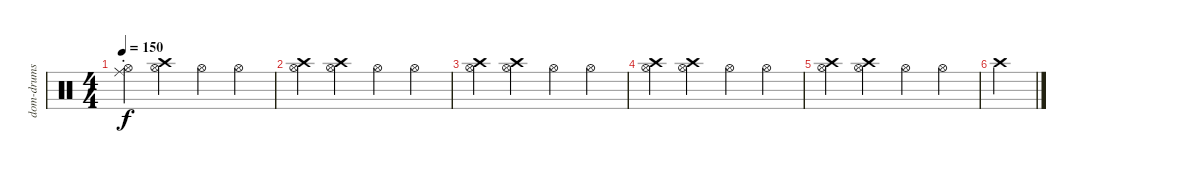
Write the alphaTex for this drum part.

\track ("dom-drums" "dom-drums") {instrument percussion}
\staff {score}
\articulation defaults
\ts (4 4)
\tempo 150
\clef neutral
\ks c
("Ride (choke)" "Hi-Hat (open)").4{dy f} ("Crash high (hit)" "Hi-Hat (open)").4 "Hi-Hat (open)".4 "Hi-Hat (open)".4 |
("Crash high (hit)" "Hi-Hat (open)").4 ("Crash high (hit)" "Hi-Hat (open)").4 "Hi-Hat (open)".4 "Hi-Hat (open)".4 |
("Crash high (hit)" "Hi-Hat (open)").4 ("Crash high (hit)" "Hi-Hat (open)").4 "Hi-Hat (open)".4 "Hi-Hat (open)".4 |
("Crash high (hit)" "Hi-Hat (open)").4 ("Crash high (hit)" "Hi-Hat (open)").4 "Hi-Hat (open)".4 "Hi-Hat (open)".4 |
("Crash high (hit)" "Hi-Hat (open)").4 ("Crash high (hit)" "Hi-Hat (open)").4 "Hi-Hat (open)".4 "Hi-Hat (open)".4 |
"Crash high (hit)".4
